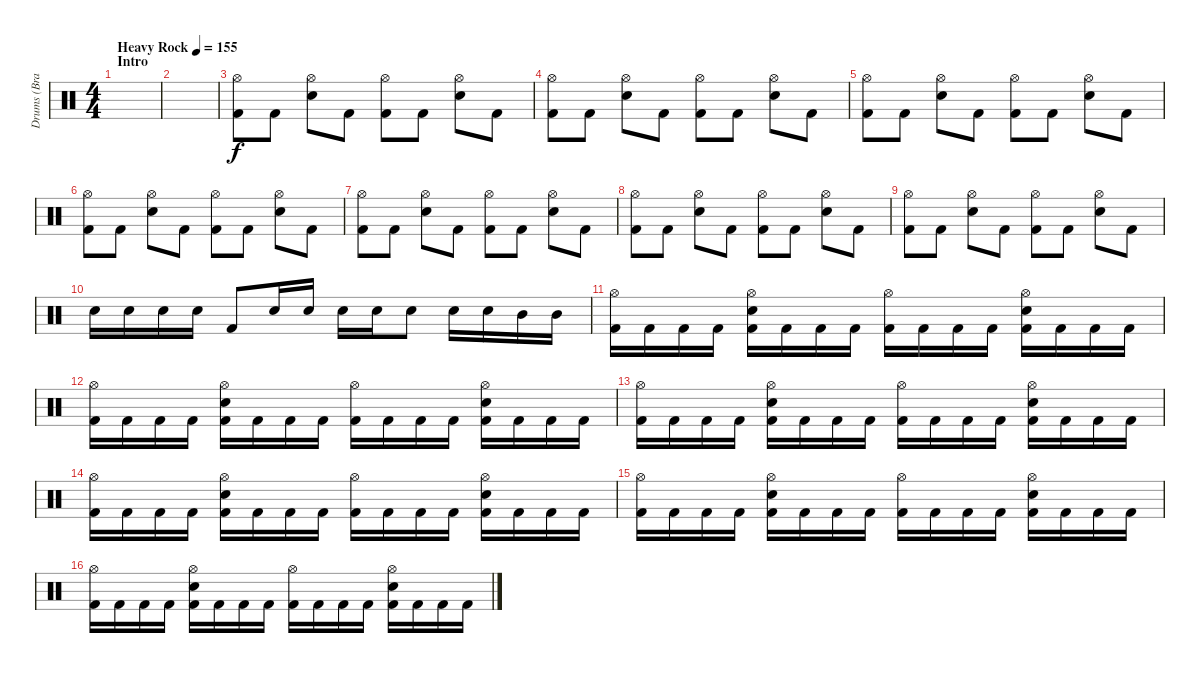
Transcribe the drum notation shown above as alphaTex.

\track ("Drums (Brandon Saller)" "Drums (Bra") {instrument percussion}
\staff {score}
\articulation defaults
\ts (4 4)
\section ("" "Intro")
\tempo (155 "Heavy Rock")
\clef neutral
\ks c
|
|
("Hi-Hat (open)" "Kick (hit) 2").8 "Kick (hit) 2".8 ("Hi-Hat (open)" "Electric Snare (hit)").8 "Kick (hit) 2".8 ("Hi-Hat (open)" "Kick (hit) 2").8 "Kick (hit) 2".8 ("Hi-Hat (open)" "Electric Snare (hit)").8 "Kick (hit) 2".8 |
("Hi-Hat (open)" "Kick (hit) 2").8 "Kick (hit) 2".8 ("Hi-Hat (open)" "Electric Snare (hit)").8 "Kick (hit) 2".8 ("Hi-Hat (open)" "Kick (hit) 2").8 "Kick (hit) 2".8 ("Hi-Hat (open)" "Electric Snare (hit)").8 "Kick (hit) 2".8 |
("Hi-Hat (open)" "Kick (hit) 2").8 "Kick (hit) 2".8 ("Hi-Hat (open)" "Electric Snare (hit)").8 "Kick (hit) 2".8 ("Hi-Hat (open)" "Kick (hit) 2").8 "Kick (hit) 2".8 ("Hi-Hat (open)" "Electric Snare (hit)").8 "Kick (hit) 2".8 |
("Hi-Hat (open)" "Kick (hit) 2").8 "Kick (hit) 2".8 ("Hi-Hat (open)" "Electric Snare (hit)").8 "Kick (hit) 2".8 ("Hi-Hat (open)" "Kick (hit) 2").8 "Kick (hit) 2".8 ("Hi-Hat (open)" "Electric Snare (hit)").8 "Kick (hit) 2".8 |
("Hi-Hat (open)" "Kick (hit) 2").8 "Kick (hit) 2".8 ("Hi-Hat (open)" "Electric Snare (hit)").8 "Kick (hit) 2".8 ("Hi-Hat (open)" "Kick (hit) 2").8 "Kick (hit) 2".8 ("Hi-Hat (open)" "Electric Snare (hit)").8 "Kick (hit) 2".8 |
("Hi-Hat (open)" "Kick (hit) 2").8 "Kick (hit) 2".8 ("Hi-Hat (open)" "Electric Snare (hit)").8 "Kick (hit) 2".8 ("Hi-Hat (open)" "Kick (hit) 2").8 "Kick (hit) 2".8 ("Hi-Hat (open)" "Electric Snare (hit)").8 "Kick (hit) 2".8 |
("Hi-Hat (open)" "Kick (hit) 2").8 "Kick (hit) 2".8 ("Hi-Hat (open)" "Electric Snare (hit)").8 "Kick (hit) 2".8 ("Hi-Hat (open)" "Kick (hit) 2").8 "Kick (hit) 2".8 ("Hi-Hat (open)" "Electric Snare (hit)").8 "Kick (hit) 2".8 |
"Electric Snare (hit)".16 "Electric Snare (hit)".16 "Electric Snare (hit)".16 "Electric Snare (hit)".16 "Kick (hit) 2".8 "Electric Snare (hit)".16 "Electric Snare (hit)".16 "Electric Snare (hit)".16 "Electric Snare (hit)".16 "Electric Snare (hit)".8 "Electric Snare (hit)".16 "Electric Snare (hit)".16 "Mid Tom (hit)".16 "Mid Tom (hit)".16 |
("Hi-Hat (open)" "Kick (hit) 2").16 "Kick (hit) 2".16 "Kick (hit) 2".16 "Kick (hit) 2".16 ("Hi-Hat (open)" "Electric Snare (hit)" "Kick (hit) 2").16 "Kick (hit) 2".16 "Kick (hit) 2".16 "Kick (hit) 2".16 ("Hi-Hat (open)" "Kick (hit) 2").16 "Kick (hit) 2".16 "Kick (hit) 2".16 "Kick (hit) 2".16 ("Hi-Hat (open)" "Electric Snare (hit)" "Kick (hit) 2").16 "Kick (hit) 2".16 "Kick (hit) 2".16 "Kick (hit) 2".16 |
("Hi-Hat (open)" "Kick (hit) 2").16 "Kick (hit) 2".16 "Kick (hit) 2".16 "Kick (hit) 2".16 ("Hi-Hat (open)" "Electric Snare (hit)" "Kick (hit) 2").16 "Kick (hit) 2".16 "Kick (hit) 2".16 "Kick (hit) 2".16 ("Hi-Hat (open)" "Kick (hit) 2").16 "Kick (hit) 2".16 "Kick (hit) 2".16 "Kick (hit) 2".16 ("Hi-Hat (open)" "Electric Snare (hit)" "Kick (hit) 2").16 "Kick (hit) 2".16 "Kick (hit) 2".16 "Kick (hit) 2".16 |
("Hi-Hat (open)" "Kick (hit) 2").16 "Kick (hit) 2".16 "Kick (hit) 2".16 "Kick (hit) 2".16 ("Hi-Hat (open)" "Electric Snare (hit)" "Kick (hit) 2").16 "Kick (hit) 2".16 "Kick (hit) 2".16 "Kick (hit) 2".16 ("Hi-Hat (open)" "Kick (hit) 2").16 "Kick (hit) 2".16 "Kick (hit) 2".16 "Kick (hit) 2".16 ("Hi-Hat (open)" "Electric Snare (hit)" "Kick (hit) 2").16 "Kick (hit) 2".16 "Kick (hit) 2".16 "Kick (hit) 2".16 |
("Hi-Hat (open)" "Kick (hit) 2").16 "Kick (hit) 2".16 "Kick (hit) 2".16 "Kick (hit) 2".16 ("Hi-Hat (open)" "Electric Snare (hit)" "Kick (hit) 2").16 "Kick (hit) 2".16 "Kick (hit) 2".16 "Kick (hit) 2".16 ("Hi-Hat (open)" "Kick (hit) 2").16 "Kick (hit) 2".16 "Kick (hit) 2".16 "Kick (hit) 2".16 ("Hi-Hat (open)" "Electric Snare (hit)" "Kick (hit) 2").16 "Kick (hit) 2".16 "Kick (hit) 2".16 "Kick (hit) 2".16 |
("Hi-Hat (open)" "Kick (hit) 2").16 "Kick (hit) 2".16 "Kick (hit) 2".16 "Kick (hit) 2".16 ("Hi-Hat (open)" "Electric Snare (hit)" "Kick (hit) 2").16 "Kick (hit) 2".16 "Kick (hit) 2".16 "Kick (hit) 2".16 ("Hi-Hat (open)" "Kick (hit) 2").16 "Kick (hit) 2".16 "Kick (hit) 2".16 "Kick (hit) 2".16 ("Hi-Hat (open)" "Electric Snare (hit)" "Kick (hit) 2").16 "Kick (hit) 2".16 "Kick (hit) 2".16 "Kick (hit) 2".16 |
("Hi-Hat (open)" "Kick (hit) 2").16 "Kick (hit) 2".16 "Kick (hit) 2".16 "Kick (hit) 2".16 ("Hi-Hat (open)" "Electric Snare (hit)" "Kick (hit) 2").16 "Kick (hit) 2".16 "Kick (hit) 2".16 "Kick (hit) 2".16 ("Hi-Hat (open)" "Kick (hit) 2").16 "Kick (hit) 2".16 "Kick (hit) 2".16 "Kick (hit) 2".16 ("Hi-Hat (open)" "Electric Snare (hit)" "Kick (hit) 2").16 "Kick (hit) 2".16 "Kick (hit) 2".16 "Kick (hit) 2".16
